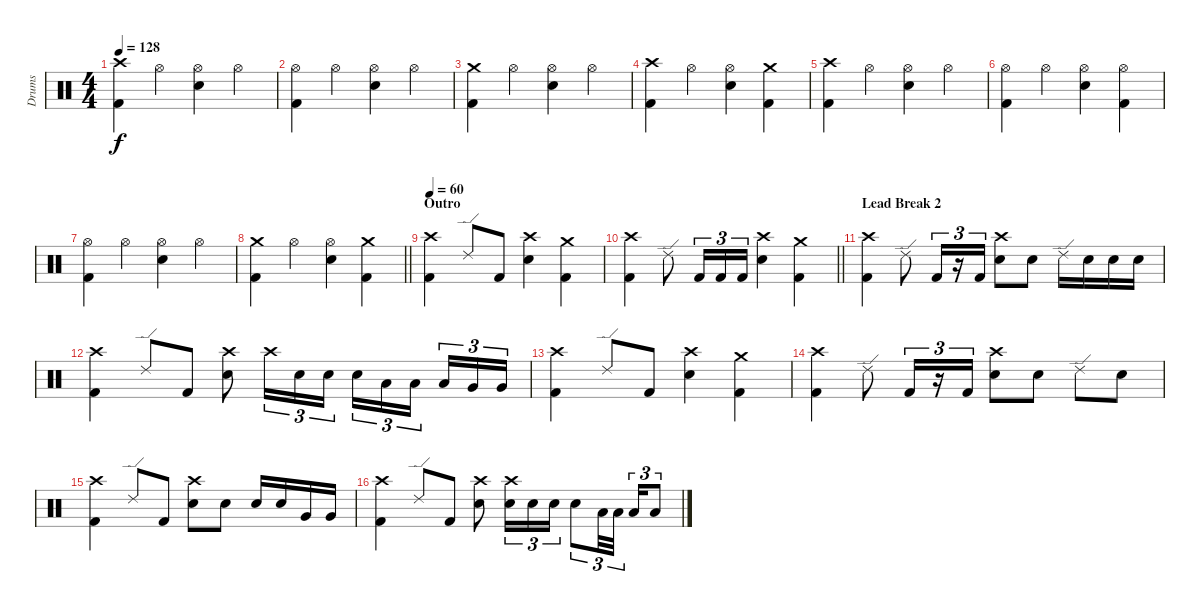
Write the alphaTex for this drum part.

\track ("Drums" "Drums") {instrument percussion}
\staff {score}
\articulation defaults
\ts (4 4)
\tempo 128
\clef neutral
\ks c
("Crash high (hit)" "Kick (hit) 2").4{dy f} "Hi-Hat (open)".4 ("Hi-Hat (open)" "Electric Snare (hit)").4 "Hi-Hat (open)".4 |
("Hi-Hat (open)" "Kick (hit) 2").4 "Hi-Hat (open)".4 ("Hi-Hat (open)" "Electric Snare (hit)").4 "Hi-Hat (open)".4 |
("Crash medium (hit)" "Kick (hit) 2").4 "Hi-Hat (open)".4 ("Hi-Hat (open)" "Electric Snare (hit)").4 "Hi-Hat (open)".4 |
("Crash high (hit)" "Kick (hit) 2").4 "Hi-Hat (open)".4 ("Hi-Hat (open)" "Electric Snare (hit)").4 ("Crash medium (hit)" "Kick (hit) 2").4 |
("Crash high (hit)" "Kick (hit) 2").4 "Hi-Hat (open)".4 ("Hi-Hat (open)" "Electric Snare (hit)").4 "Hi-Hat (open)".4 |
("Hi-Hat (open)" "Kick (hit) 2").4 "Hi-Hat (open)".4 ("Hi-Hat (open)" "Electric Snare (hit)").4 ("Hi-Hat (open)" "Kick (hit) 2").4 |
("Hi-Hat (open)" "Kick (hit) 2").4 "Hi-Hat (open)".4 ("Hi-Hat (open)" "Electric Snare (hit)").4 "Hi-Hat (open)".4 |
\barLineRight lightlight
("Crash medium (hit)" "Kick (hit) 2").4 "Hi-Hat (open)".4 ("Hi-Hat (open)" "Electric Snare (hit)").4 ("Crash medium (hit)" "Kick (hit) 2").4 |
\section ("" "Outro")
\tempo 60
("Crash high (hit)" "Kick (hit) 2").4 "Ride (edge) 2".8 "Kick (hit) 2".8 ("Crash high (hit)" "Electric Snare (hit)").4 ("Crash medium (hit)" "Kick (hit) 2").4 |
\barLineRight lightlight
("Crash high (hit)" "Kick (hit) 2").4 "Ride (edge) 2".8 "Kick (hit) 2".16{tu (3 2)} "Kick (hit) 2".16{tu (3 2)} "Kick (hit) 2".16{tu (3 2)} ("Crash high (hit)" "Electric Snare (hit)").4 ("Crash medium (hit)" "Kick (hit) 2").4 |
\section ("" "Lead Break 2")
("Crash high (hit)" "Kick (hit) 2").4 "Ride (edge) 2".8 "Kick (hit) 2".16{tu (3 2)} r.16{tu (3 2)} "Kick (hit) 2".16{tu (3 2)} ("Crash high (hit)" "Electric Snare (hit)").8 "Electric Snare (hit)".8 "Ride (edge) 2".16 "Electric Snare (hit)".16 "Electric Snare (hit)".16 "Electric Snare (hit)".16 |
("Crash high (hit)" "Kick (hit) 2").4 "Ride (edge) 2".8 "Kick (hit) 2".8 ("Crash high (hit)" "Electric Snare (hit)").8 "Crash high (hit)".16{tu (3 2)} "Electric Snare (hit)".16{tu (3 2)} "Electric Snare (hit)".16{tu (3 2)} "Electric Snare (hit)".16{tu (3 2)} "Low Tom (hit)".16{tu (3 2)} "Low Tom (hit)".16{tu (3 2) beam splitsecondary} "Low Tom (hit)".16{tu (3 2)} "Very Low Tom (hit)".16{tu (3 2)} "Very Low Tom (hit)".16{tu (3 2)} |
("Crash high (hit)" "Kick (hit) 2").4 "Ride (edge) 2".8 "Kick (hit) 2".8 ("Crash high (hit)" "Electric Snare (hit)").4 ("Crash medium (hit)" "Kick (hit) 2").4 |
("Crash high (hit)" "Kick (hit) 2").4 "Ride (edge) 2".8 "Kick (hit) 2".16{tu (3 2)} r.16{tu (3 2)} "Kick (hit) 2".16{tu (3 2)} ("Crash high (hit)" "Electric Snare (hit)").8 "Electric Snare (hit)".8 "Ride (edge) 2".8 "Electric Snare (hit)".8 |
("Crash high (hit)" "Kick (hit) 2").4 "Ride (edge) 2".8 "Kick (hit) 2".8 ("Crash high (hit)" "Electric Snare (hit)").8 "Electric Snare (hit)".8 "Electric Snare (hit)".16 "Electric Snare (hit)".16 "Very Low Tom (hit)".16 "Very Low Tom (hit)".16 |
("Crash high (hit)" "Kick (hit) 2").4 "Ride (edge) 2".8 "Kick (hit) 2".8 ("Crash high (hit)" "Electric Snare (hit)").8 ("Crash high (hit)" "Electric Snare (hit)").16{tu (3 2)} "Electric Snare (hit)".16{tu (3 2)} "Electric Snare (hit)".16{tu (3 2)} "Electric Snare (hit)".8{tu (3 2)} "Low Tom (hit)".32{tu (3 2)} "Low Tom (hit)".32{tu (3 2) beam splitsecondary} "Low Tom (hit)".16{tu (3 2)} "Low Tom (hit)".8{tu (3 2)}
